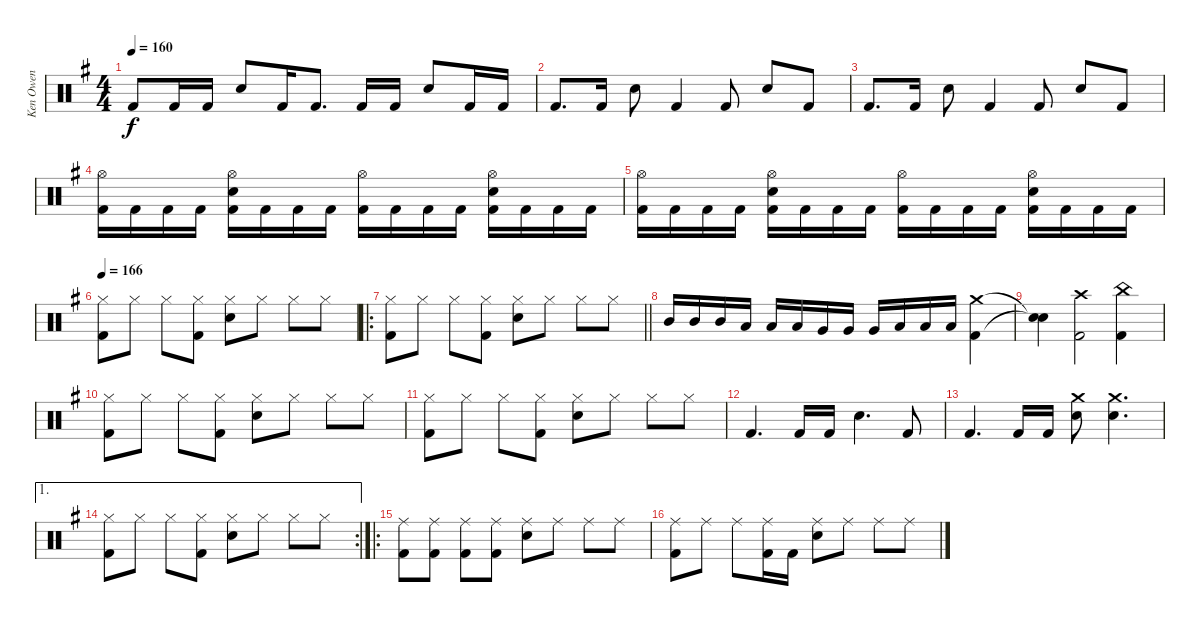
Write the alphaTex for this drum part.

\track ("Ken Owen" "Ken Owen") {instrument percussion}
\staff {score}
\articulation defaults
\ts (4 4)
\tempo 160
\clef neutral
\ks g "Kick (hit) 2"{t}.8{dy f} "Kick (hit) 2".16 "Kick (hit) 2".16 "Snare (hit) 2".8 "Kick (hit) 2".16 "Kick (hit) 2".8{d} "Kick (hit) 2".16 "Kick (hit) 2".16 "Snare (hit) 2".8 "Kick (hit) 2".16 "Kick (hit) 2".16
|
"Kick (hit) 2".8{d} "Kick (hit) 2".16 "Snare (hit) 2".8 "Kick (hit) 2".4 "Kick (hit) 2".8 "Snare (hit) 2".8 "Kick (hit) 2".8 |
"Kick (hit) 2".8{d} "Kick (hit) 2".16 "Snare (hit) 2".8 "Kick (hit) 2".4 "Kick (hit) 2".8 "Snare (hit) 2".8 "Kick (hit) 2".8 |
("Hi-Hat (open)" "Kick (hit) 2").16 "Kick (hit) 2".16 "Kick (hit) 2".16 "Kick (hit) 2".16 ("Hi-Hat (open)" "Snare (hit) 2" "Kick (hit) 2").16 "Kick (hit) 2".16 "Kick (hit) 2".16 "Kick (hit) 2".16 ("Hi-Hat (open)" "Kick (hit) 2").16 "Kick (hit) 2".16 "Kick (hit) 2".16 "Kick (hit) 2".16 ("Hi-Hat (open)" "Snare (hit) 2" "Kick (hit) 2").16 "Kick (hit) 2".16 "Kick (hit) 2".16 "Kick (hit) 2".16 |
("Hi-Hat (open)" "Kick (hit) 2").16 "Kick (hit) 2".16 "Kick (hit) 2".16 "Kick (hit) 2".16 ("Hi-Hat (open)" "Snare (hit) 2" "Kick (hit) 2").16 "Kick (hit) 2".16 "Kick (hit) 2".16 "Kick (hit) 2".16 ("Hi-Hat (open)" "Kick (hit) 2").16 "Kick (hit) 2".16 "Kick (hit) 2".16 "Kick (hit) 2".16 ("Hi-Hat (open)" "Snare (hit) 2" "Kick (hit) 2").16 "Kick (hit) 2".16 "Kick (hit) 2".16 "Kick (hit) 2".16 |
\tempo 166
("Hi-Hat (closed)" "Kick (hit) 2").8 "Hi-Hat (closed)".8 "Hi-Hat (closed)".8 ("Hi-Hat (closed)" "Kick (hit) 2").8 ("Hi-Hat (closed)" "Snare (hit) 2").8 "Hi-Hat (closed)".8 "Hi-Hat (closed)".8 "Hi-Hat (closed)".8 |
\ro
\barLineRight lightlight
("Hi-Hat (closed)" "Kick (hit) 2").8 "Hi-Hat (closed)".8 "Hi-Hat (closed)".8 ("Hi-Hat (closed)" "Kick (hit) 2").8 ("Hi-Hat (closed)" "Snare (hit) 2").8 "Hi-Hat (closed)".8 "Hi-Hat (closed)".8 "Hi-Hat (closed)".8 |
"Mid Tom (hit)".16 "Mid Tom (hit)".16 "Mid Tom (hit)".16 "Low Tom (hit)".16 "Low Tom (hit)".16 "Low Tom (hit)".16 "Very Low Tom (hit)".16 "Very Low Tom (hit)".16 "Very Low Tom (hit)".16 "Low Floor Tom (hit)".16 "Low Floor Tom (hit)".16 "Low Floor Tom (hit)".16 ("Crash medium (hit)" "Kick (hit) 2").4 |
("Snare (hit)"{t} "Snare (hit)"{t}).4 ("Crash high (hit)" "Kick (hit) 2").2 ("China (hit)" "Kick (hit) 2").4 |
("Hi-Hat (closed)" "Kick (hit) 2").8 "Hi-Hat (closed)".8 "Hi-Hat (closed)".8 ("Hi-Hat (closed)" "Kick (hit) 2").8 ("Hi-Hat (closed)" "Snare (hit) 2").8 "Hi-Hat (closed)".8 "Hi-Hat (closed)".8 "Hi-Hat (closed)".8 |
("Hi-Hat (closed)" "Kick (hit) 2").8 "Hi-Hat (closed)".8 "Hi-Hat (closed)".8 ("Hi-Hat (closed)" "Kick (hit) 2").8 ("Hi-Hat (closed)" "Snare (hit) 2").8 "Hi-Hat (closed)".8 "Hi-Hat (closed)".8 "Hi-Hat (closed)".8 |
"Kick (hit) 2".4{d} "Kick (hit) 2".16 "Kick (hit) 2".16 "Snare (hit) 2".4{d} "Kick (hit) 2".8 |
"Kick (hit) 2".4{d} "Kick (hit) 2".16 "Kick (hit) 2".16 ("Crash medium (hit)" "Snare (hit) 2").8 ("Crash medium (hit)" "Snare (hit) 2").4{d} |
\ae 1
\rc 2
("Hi-Hat (closed)" "Kick (hit) 2").8 "Hi-Hat (closed)".8 "Hi-Hat (closed)".8 ("Hi-Hat (closed)" "Kick (hit) 2").8 ("Hi-Hat (closed)" "Snare (hit) 2").8 "Hi-Hat (closed)".8 "Hi-Hat (closed)".8 "Hi-Hat (closed)".8 |
\ro
("Ride (middle)" "Kick (hit) 2").8 ("Ride (middle)" "Kick (hit) 2").8 ("Ride (middle)" "Kick (hit) 2").8 ("Ride (middle)" "Kick (hit) 2").8 ("Ride (middle)" "Snare (hit) 2").8 "Ride (middle)".8 "Ride (middle)".8 "Ride (middle)".8 |
("Ride (middle)" "Kick (hit) 2").8 "Ride (middle)".8 "Ride (middle)".8 ("Ride (middle)" "Kick (hit) 2").16 "Kick (hit) 2".16 ("Ride (middle)" "Snare (hit) 2").8 "Ride (middle)".8 "Ride (middle)".8 "Ride (middle)".8
